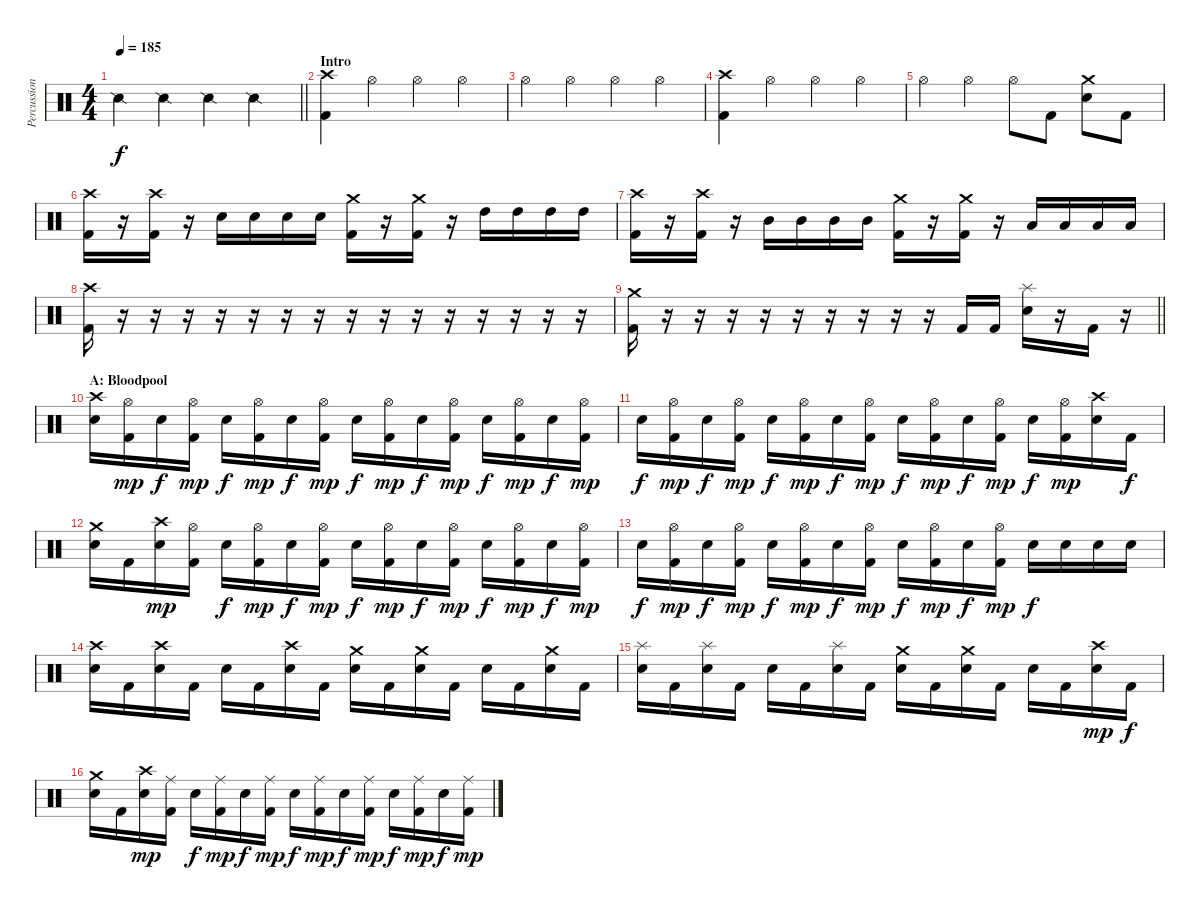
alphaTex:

\track ("Percussion" "Percussion") {instrument percussion}
\staff {score}
\articulation defaults
\ts (4 4)
\tempo 185
\clef neutral
\barLineRight lightlight
\ks c "Snare (side stick) 2".4{dy f} "Snare (side stick) 2".4 "Snare (side stick) 2".4 "Snare (side stick) 2".4
|
\section ("" "Intro")
("Crash high (hit)" "Kick (hit) 2").4 "Hi-Hat (open)".4 "Hi-Hat (open)".4 "Hi-Hat (open)".4 |
"Hi-Hat (open)".4 "Hi-Hat (open)".4 "Hi-Hat (open)".4 "Hi-Hat (open)".4 |
("Crash high (hit)" "Kick (hit) 2").4 "Hi-Hat (open)".4 "Hi-Hat (open)".4 "Hi-Hat (open)".4 |
"Hi-Hat (open)".4 "Hi-Hat (open)".4 "Hi-Hat (open)".8 "Kick (hit) 2".8 ("Crash medium (hit)" "Snare (hit) 2").8 "Kick (hit) 2".8 |
("Crash high (hit)" "Kick (hit) 2").16 r.16 ("Crash high (hit)" "Kick (hit) 2").16 r.16 "Snare (hit) 2".16 "Snare (hit) 2".16 "Snare (hit) 2".16 "Snare (hit) 2".16 ("Crash medium (hit)" "Kick (hit) 2").16 r.16 ("Crash medium (hit)" "Kick (hit) 2").16 r.16 "High Tom (hit)".16 "High Tom (hit)".16 "High Tom (hit)".16 "High Tom (hit)".16 |
("Crash high (hit)" "Kick (hit) 2").16 r.16 ("Crash high (hit)" "Kick (hit) 2").16 r.16 "Mid Tom (hit)".16 "Mid Tom (hit)".16 "Mid Tom (hit)".16 "Mid Tom (hit)".16 ("Crash medium (hit)" "Kick (hit) 2").16 r.16 ("Crash medium (hit)" "Kick (hit) 2").16 r.16 "Low Tom (hit)".16 "Low Tom (hit)".16 "Low Tom (hit)".16 "Low Tom (hit)".16 |
("Crash high (hit)" "Kick (hit) 2").16 r.16 r.16 r.16 r.16 r.16 r.16 r.16 r.16 r.16 r.16 r.16 r.16 r.16 r.16 r.16 |
\barLineRight lightlight
("Crash medium (hit)" "Kick (hit) 2").16 r.16 r.16 r.16 r.16 r.16 r.16 r.16 r.16 r.16 "Kick (hit) 2".16 "Kick (hit) 2".16 ("Splash (hit)" "Snare (hit) 2").16 r.16 "Kick (hit) 2".16 r.16 |
\section ("" "A: Bloodpool")
("Crash high (hit)" "Snare (hit) 2").16 ("Hi-Hat (open)" "Kick (hit) 2").16{dy mp} "Snare (hit) 2".16{dy f} ("Hi-Hat (open)" "Kick (hit) 2").16{dy mp} "Snare (hit) 2".16{dy f} ("Hi-Hat (open)" "Kick (hit) 2").16{dy mp} "Snare (hit) 2".16{dy f} ("Hi-Hat (open)" "Kick (hit) 2").16{dy mp} "Snare (hit) 2".16{dy f} ("Hi-Hat (open)" "Kick (hit) 2").16{dy mp} "Snare (hit) 2".16{dy f} ("Hi-Hat (open)" "Kick (hit) 2").16{dy mp} "Snare (hit) 2".16{dy f} ("Hi-Hat (open)" "Kick (hit) 2").16{dy mp} "Snare (hit) 2".16{dy f} ("Hi-Hat (open)" "Kick (hit) 2").16{dy mp} |
"Snare (hit) 2".16{dy f} ("Hi-Hat (open)" "Kick (hit) 2").16{dy mp} "Snare (hit) 2".16{dy f} ("Hi-Hat (open)" "Kick (hit) 2").16{dy mp} "Snare (hit) 2".16{dy f} ("Hi-Hat (open)" "Kick (hit) 2").16{dy mp} "Snare (hit) 2".16{dy f} ("Hi-Hat (open)" "Kick (hit) 2").16{dy mp} "Snare (hit) 2".16{dy f} ("Hi-Hat (open)" "Kick (hit) 2").16{dy mp} "Snare (hit) 2".16{dy f} ("Hi-Hat (open)" "Kick (hit) 2").16{dy mp} "Snare (hit) 2".16{dy f} ("Hi-Hat (open)" "Kick (hit) 2").16{dy mp} ("Crash high (hit)" "Snare (hit) 2").16 "Kick (hit) 2".16{dy f} |
("Crash medium (hit)" "Snare (hit) 2").16 "Kick (hit) 2".16 ("Crash high (hit)" "Snare (hit) 2").16{dy mp} ("Hi-Hat (open)" "Kick (hit) 2").16 "Snare (hit) 2".16{dy f} ("Hi-Hat (open)" "Kick (hit) 2").16{dy mp} "Snare (hit) 2".16{dy f} ("Hi-Hat (open)" "Kick (hit) 2").16{dy mp} "Snare (hit) 2".16{dy f} ("Hi-Hat (open)" "Kick (hit) 2").16{dy mp} "Snare (hit) 2".16{dy f} ("Hi-Hat (open)" "Kick (hit) 2").16{dy mp} "Snare (hit) 2".16{dy f} ("Hi-Hat (open)" "Kick (hit) 2").16{dy mp} "Snare (hit) 2".16{dy f} ("Hi-Hat (open)" "Kick (hit) 2").16{dy mp} |
"Snare (hit) 2".16{dy f} ("Hi-Hat (open)" "Kick (hit) 2").16{dy mp} "Snare (hit) 2".16{dy f} ("Hi-Hat (open)" "Kick (hit) 2").16{dy mp} "Snare (hit) 2".16{dy f} ("Hi-Hat (open)" "Kick (hit) 2").16{dy mp} "Snare (hit) 2".16{dy f} ("Hi-Hat (open)" "Kick (hit) 2").16{dy mp} "Snare (hit) 2".16{dy f} ("Hi-Hat (open)" "Kick (hit) 2").16{dy mp} "Snare (hit) 2".16{dy f} ("Hi-Hat (open)" "Kick (hit) 2").16{dy mp} "Snare (hit) 2".16{dy f} "Snare (hit) 2".16 "Snare (hit) 2".16 "Snare (hit) 2".16 |
("Crash high (hit)" "Snare (hit) 2").16 "Kick (hit) 2".16 ("Crash high (hit)" "Snare (hit) 2").16 "Kick (hit) 2".16 "Snare (hit) 2".16 "Kick (hit) 2".16 ("Crash high (hit)" "Snare (hit) 2").16 "Kick (hit) 2".16 ("Crash medium (hit)" "Snare (hit) 2").16 "Kick (hit) 2".16 ("Crash medium (hit)" "Snare (hit) 2").16 "Kick (hit) 2".16 "Snare (hit) 2".16 "Kick (hit) 2".16 ("Crash medium (hit)" "Snare (hit) 2").16 "Kick (hit) 2".16 |
("Splash (hit)" "Snare (hit) 2").16 "Kick (hit) 2".16 ("Splash (hit)" "Snare (hit) 2").16 "Kick (hit) 2".16 "Snare (hit) 2".16 "Kick (hit) 2".16 ("Splash (hit)" "Snare (hit) 2").16 "Kick (hit) 2".16 ("Crash medium (hit)" "Snare (hit) 2").16 "Kick (hit) 2".16 ("Crash medium (hit)" "Snare (hit) 2").16 "Kick (hit) 2".16 "Snare (hit) 2".16 "Kick (hit) 2".16 ("Crash high (hit)" "Snare (hit) 2").16{dy mp} "Kick (hit) 2".16{dy f} |
("Crash medium (hit)" "Snare (hit) 2").16 "Kick (hit) 2".16 ("Crash high (hit)" "Snare (hit) 2").16{dy mp} ("Ride (middle)" "Kick (hit) 2").16 "Snare (hit) 2".16{dy f} ("Ride (middle)" "Kick (hit) 2").16{dy mp} "Snare (hit) 2".16{dy f} ("Ride (middle)" "Kick (hit) 2").16{dy mp} "Snare (hit) 2".16{dy f} ("Ride (middle)" "Kick (hit) 2").16{dy mp} "Snare (hit) 2".16{dy f} ("Ride (middle)" "Kick (hit) 2").16{dy mp} "Snare (hit) 2".16{dy f} ("Ride (middle)" "Kick (hit) 2").16{dy mp} "Snare (hit) 2".16{dy f} ("Ride (middle)" "Kick (hit) 2").16{dy mp}
